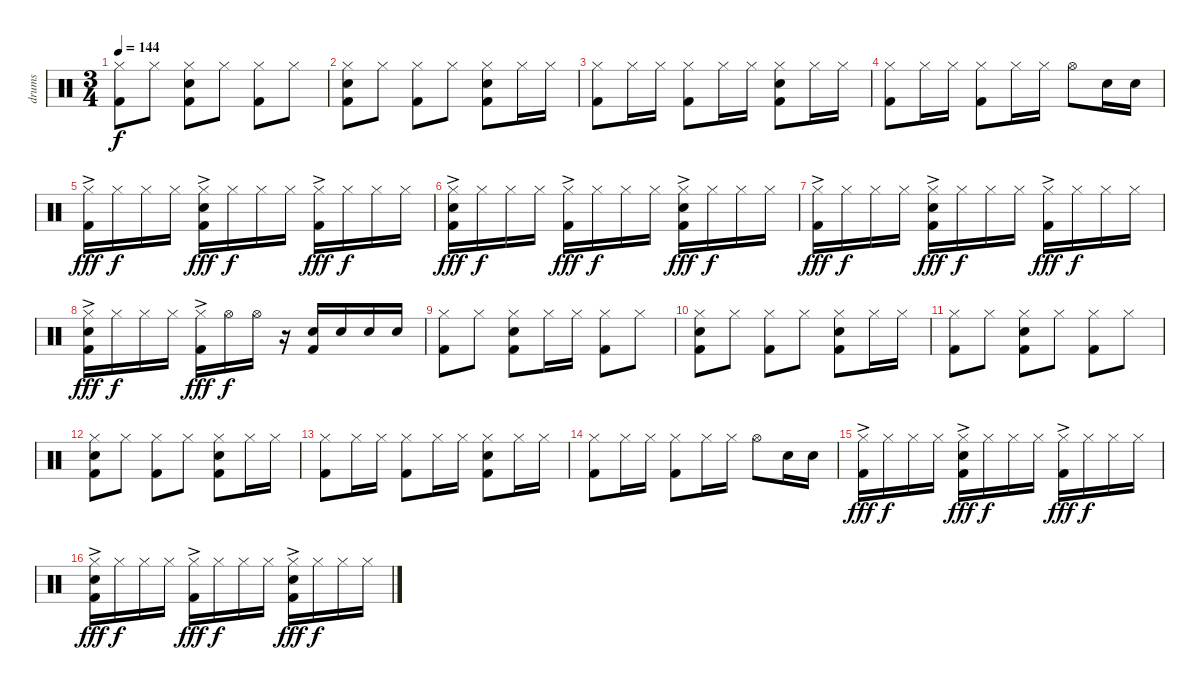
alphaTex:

\track ("drums" "drums") {instrument percussion}
\staff {score}
\articulation defaults
\ts (3 4)
\tempo 144
\clef neutral
\ks c
("Hi-Hat (closed)" "Kick (hit) 2").8{dy f} "Hi-Hat (closed)".8 ("Hi-Hat (closed)" "Snare (hit) 2" "Kick (hit) 2").8 "Hi-Hat (closed)".8 ("Hi-Hat (closed)" "Kick (hit) 2").8 "Hi-Hat (closed)".8 |
("Hi-Hat (closed)" "Snare (hit) 2" "Kick (hit) 2").8 "Hi-Hat (closed)".8 ("Hi-Hat (closed)" "Kick (hit) 2").8 "Hi-Hat (closed)".8 ("Hi-Hat (closed)" "Snare (hit) 2" "Kick (hit) 2").8 "Hi-Hat (closed)".16 "Hi-Hat (closed)".16 |
("Hi-Hat (closed)" "Kick (hit) 2").8 "Hi-Hat (closed)".16 "Hi-Hat (closed)".16 ("Hi-Hat (closed)" "Kick (hit) 2").8 "Hi-Hat (closed)".16 "Hi-Hat (closed)".16 ("Hi-Hat (closed)" "Snare (hit) 2" "Kick (hit) 2").8 "Hi-Hat (closed)".16 "Hi-Hat (closed)".16 |
("Hi-Hat (closed)" "Kick (hit) 2").8 "Hi-Hat (closed)".16 "Hi-Hat (closed)".16 ("Hi-Hat (closed)" "Kick (hit) 2").8 "Hi-Hat (closed)".16 "Hi-Hat (closed)".16 "Hi-Hat (open)".8 "Snare (hit) 2".16 "Snare (hit) 2".16 |
("Hi-Hat (closed)"{ac} "Kick (hit) 2").16{dy fff} "Hi-Hat (closed)".16{dy f} "Hi-Hat (closed)".16 "Hi-Hat (closed)".16 ("Hi-Hat (closed)"{ac} "Snare (hit) 2" "Kick (hit) 2").16{dy fff} "Hi-Hat (closed)".16{dy f} "Hi-Hat (closed)".16 "Hi-Hat (closed)".16 ("Hi-Hat (closed)"{ac} "Kick (hit) 2").16{dy fff} "Hi-Hat (closed)".16{dy f} "Hi-Hat (closed)".16 "Hi-Hat (closed)".16 |
("Hi-Hat (closed)"{ac} "Snare (hit) 2" "Kick (hit) 2").16{dy fff} "Hi-Hat (closed)".16{dy f} "Hi-Hat (closed)".16 "Hi-Hat (closed)".16 ("Hi-Hat (closed)"{ac} "Kick (hit) 2").16{dy fff} "Hi-Hat (closed)".16{dy f} "Hi-Hat (closed)".16 "Hi-Hat (closed)".16 ("Hi-Hat (closed)"{ac} "Snare (hit) 2" "Kick (hit) 2").16{dy fff} "Hi-Hat (closed)".16{dy f} "Hi-Hat (closed)".16 "Hi-Hat (closed)".16 |
("Hi-Hat (closed)"{ac} "Kick (hit) 2").16{dy fff} "Hi-Hat (closed)".16{dy f} "Hi-Hat (closed)".16 "Hi-Hat (closed)".16 ("Hi-Hat (closed)"{ac} "Snare (hit) 2" "Kick (hit) 2").16{dy fff} "Hi-Hat (closed)".16{dy f} "Hi-Hat (closed)".16 "Hi-Hat (closed)".16 ("Hi-Hat (closed)"{ac} "Kick (hit) 2").16{dy fff} "Hi-Hat (closed)".16{dy f} "Hi-Hat (closed)".16 "Hi-Hat (closed)".16 |
("Hi-Hat (closed)"{ac} "Snare (hit) 2" "Kick (hit) 2").16{dy fff} "Hi-Hat (closed)".16{dy f} "Hi-Hat (closed)".16 "Hi-Hat (closed)".16 ("Hi-Hat (closed)"{ac} "Kick (hit) 2").16{dy fff} "Hi-Hat (open)".16{dy f} "Hi-Hat (open)".16 r.16 ("Snare (hit) 2" "Kick (hit) 2").16 "Snare (hit) 2".16 "Snare (hit) 2".16 "Snare (hit) 2".16 |
("Hi-Hat (closed)" "Kick (hit) 2").8 "Hi-Hat (closed)".8 ("Hi-Hat (closed)" "Snare (hit) 2" "Kick (hit) 2").8 "Hi-Hat (closed)".16 "Hi-Hat (closed)".16 ("Hi-Hat (closed)" "Kick (hit) 2").8 "Hi-Hat (closed)".8 |
("Hi-Hat (closed)" "Snare (hit) 2" "Kick (hit) 2").8 "Hi-Hat (closed)".8 ("Hi-Hat (closed)" "Kick (hit) 2").8 "Hi-Hat (closed)".8 ("Hi-Hat (closed)" "Snare (hit) 2" "Kick (hit) 2").8 "Hi-Hat (closed)".16 "Hi-Hat (closed)".16 |
("Hi-Hat (closed)" "Kick (hit) 2").8 "Hi-Hat (closed)".8 ("Hi-Hat (closed)" "Snare (hit) 2" "Kick (hit) 2").8 "Hi-Hat (closed)".8 ("Hi-Hat (closed)" "Kick (hit) 2").8 "Hi-Hat (closed)".8 |
("Hi-Hat (closed)" "Snare (hit) 2" "Kick (hit) 2").8 "Hi-Hat (closed)".8 ("Hi-Hat (closed)" "Kick (hit) 2").8 "Hi-Hat (closed)".8 ("Hi-Hat (closed)" "Snare (hit) 2" "Kick (hit) 2").8 "Hi-Hat (closed)".16 "Hi-Hat (closed)".16 |
("Hi-Hat (closed)" "Kick (hit) 2").8 "Hi-Hat (closed)".16 "Hi-Hat (closed)".16 ("Hi-Hat (closed)" "Kick (hit) 2").8 "Hi-Hat (closed)".16 "Hi-Hat (closed)".16 ("Hi-Hat (closed)" "Snare (hit) 2" "Kick (hit) 2").8 "Hi-Hat (closed)".16 "Hi-Hat (closed)".16 |
("Hi-Hat (closed)" "Kick (hit) 2").8 "Hi-Hat (closed)".16 "Hi-Hat (closed)".16 ("Hi-Hat (closed)" "Kick (hit) 2").8 "Hi-Hat (closed)".16 "Hi-Hat (closed)".16 "Hi-Hat (open)".8 "Snare (hit) 2".16 "Snare (hit) 2".16 |
("Hi-Hat (closed)"{ac} "Kick (hit) 2").16{dy fff} "Hi-Hat (closed)".16{dy f} "Hi-Hat (closed)".16 "Hi-Hat (closed)".16 ("Hi-Hat (closed)"{ac} "Snare (hit) 2" "Kick (hit) 2").16{dy fff} "Hi-Hat (closed)".16{dy f} "Hi-Hat (closed)".16 "Hi-Hat (closed)".16 ("Hi-Hat (closed)"{ac} "Kick (hit) 2").16{dy fff} "Hi-Hat (closed)".16{dy f} "Hi-Hat (closed)".16 "Hi-Hat (closed)".16 |
("Hi-Hat (closed)"{ac} "Snare (hit) 2" "Kick (hit) 2").16{dy fff} "Hi-Hat (closed)".16{dy f} "Hi-Hat (closed)".16 "Hi-Hat (closed)".16 ("Hi-Hat (closed)"{ac} "Kick (hit) 2").16{dy fff} "Hi-Hat (closed)".16{dy f} "Hi-Hat (closed)".16 "Hi-Hat (closed)".16 ("Hi-Hat (closed)"{ac} "Snare (hit) 2" "Kick (hit) 2").16{dy fff} "Hi-Hat (closed)".16{dy f} "Hi-Hat (closed)".16 "Hi-Hat (closed)".16
